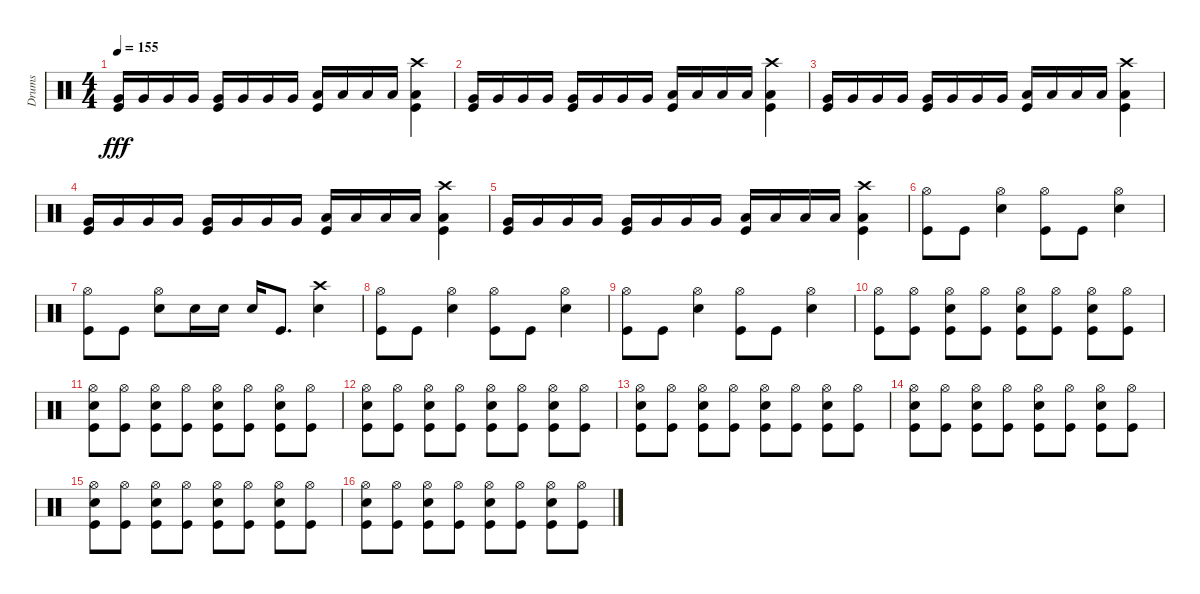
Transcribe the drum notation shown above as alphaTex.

\track ("Drums" "Drums") {instrument percussion}
\staff {score}
\articulation defaults
\ts (4 4)
\tempo 155
\clef neutral
\ks c
("Very Low Tom (hit)" "Kick (hit)").16{dy fff} "Very Low Tom (hit)".16 "Very Low Tom (hit)".16 "Very Low Tom (hit)".16 ("Very Low Tom (hit)" "Kick (hit)").16 "Very Low Tom (hit)".16 "Very Low Tom (hit)".16 "Very Low Tom (hit)".16 ("Low Floor Tom (hit)" "Kick (hit)").16 "Low Floor Tom (hit)".16 "Low Floor Tom (hit)".16 "Low Floor Tom (hit)".16 ("Crash high (hit)" "Low Floor Tom (hit)" "Kick (hit)").4 |
("Very Low Tom (hit)" "Kick (hit)").16 "Very Low Tom (hit)".16 "Very Low Tom (hit)".16 "Very Low Tom (hit)".16 ("Very Low Tom (hit)" "Kick (hit)").16 "Very Low Tom (hit)".16 "Very Low Tom (hit)".16 "Very Low Tom (hit)".16 ("Low Floor Tom (hit)" "Kick (hit)").16 "Low Floor Tom (hit)".16 "Low Floor Tom (hit)".16 "Low Floor Tom (hit)".16 ("Crash high (hit)" "Low Floor Tom (hit)" "Kick (hit)").4 |
("Very Low Tom (hit)" "Kick (hit)").16 "Very Low Tom (hit)".16 "Very Low Tom (hit)".16 "Very Low Tom (hit)".16 ("Very Low Tom (hit)" "Kick (hit)").16 "Very Low Tom (hit)".16 "Very Low Tom (hit)".16 "Very Low Tom (hit)".16 ("Low Floor Tom (hit)" "Kick (hit)").16 "Low Floor Tom (hit)".16 "Low Floor Tom (hit)".16 "Low Floor Tom (hit)".16 ("Crash high (hit)" "Low Floor Tom (hit)" "Kick (hit)").4 |
("Very Low Tom (hit)" "Kick (hit)").16 "Very Low Tom (hit)".16 "Very Low Tom (hit)".16 "Very Low Tom (hit)".16 ("Very Low Tom (hit)" "Kick (hit)").16 "Very Low Tom (hit)".16 "Very Low Tom (hit)".16 "Very Low Tom (hit)".16 ("Low Floor Tom (hit)" "Kick (hit)").16 "Low Floor Tom (hit)".16 "Low Floor Tom (hit)".16 "Low Floor Tom (hit)".16 ("Crash high (hit)" "Low Floor Tom (hit)" "Kick (hit)").4 |
("Very Low Tom (hit)" "Kick (hit)").16 "Very Low Tom (hit)".16 "Very Low Tom (hit)".16 "Very Low Tom (hit)".16 ("Very Low Tom (hit)" "Kick (hit)").16 "Very Low Tom (hit)".16 "Very Low Tom (hit)".16 "Very Low Tom (hit)".16 ("Low Floor Tom (hit)" "Kick (hit)").16 "Low Floor Tom (hit)".16 "Low Floor Tom (hit)".16 "Low Floor Tom (hit)".16 ("Crash high (hit)" "Low Floor Tom (hit)" "Kick (hit)").4 |
("Hi-Hat (open)" "Kick (hit)").8 "Kick (hit)".8 ("Hi-Hat (open)" "Snare (hit) 2").4 ("Hi-Hat (open)" "Kick (hit)").8 "Kick (hit)".8 ("Hi-Hat (open)" "Snare (hit) 2").4 |
("Hi-Hat (open)" "Kick (hit)").8 "Kick (hit)".8 ("Hi-Hat (open)" "Snare (hit) 2").8 "Snare (hit) 2".16 "Snare (hit) 2".16 "Snare (hit) 2".16 "Kick (hit)".8{d} ("Crash high (hit)" "Snare (hit) 2").4 |
("Hi-Hat (open)" "Kick (hit)").8 "Kick (hit)".8 ("Hi-Hat (open)" "Snare (hit) 2").4 ("Hi-Hat (open)" "Kick (hit)").8 "Kick (hit)".8 ("Hi-Hat (open)" "Snare (hit) 2").4 |
("Hi-Hat (open)" "Kick (hit)").8 "Kick (hit)".8 ("Hi-Hat (open)" "Snare (hit) 2").4 ("Hi-Hat (open)" "Kick (hit)").8 "Kick (hit)".8 ("Hi-Hat (open)" "Snare (hit) 2").4 |
("Hi-Hat (open)" "Kick (hit)").8 ("Hi-Hat (open)" "Kick (hit)").8 ("Hi-Hat (open)" "Snare (hit) 2" "Kick (hit)").8 ("Hi-Hat (open)" "Kick (hit)").8 ("Hi-Hat (open)" "Snare (hit) 2" "Kick (hit)").8 ("Hi-Hat (open)" "Kick (hit)").8 ("Hi-Hat (open)" "Snare (hit) 2" "Kick (hit)").8 ("Hi-Hat (open)" "Kick (hit)").8 |
("Hi-Hat (open)" "Snare (hit) 2" "Kick (hit)").8 ("Hi-Hat (open)" "Kick (hit)").8 ("Hi-Hat (open)" "Snare (hit) 2" "Kick (hit)").8 ("Hi-Hat (open)" "Kick (hit)").8 ("Hi-Hat (open)" "Snare (hit) 2" "Kick (hit)").8 ("Hi-Hat (open)" "Kick (hit)").8 ("Hi-Hat (open)" "Snare (hit) 2" "Kick (hit)").8 ("Hi-Hat (open)" "Kick (hit)").8 |
("Hi-Hat (open)" "Snare (hit) 2" "Kick (hit)").8 ("Hi-Hat (open)" "Kick (hit)").8 ("Hi-Hat (open)" "Snare (hit) 2" "Kick (hit)").8 ("Hi-Hat (open)" "Kick (hit)").8 ("Hi-Hat (open)" "Snare (hit) 2" "Kick (hit)").8 ("Hi-Hat (open)" "Kick (hit)").8 ("Hi-Hat (open)" "Snare (hit) 2" "Kick (hit)").8 ("Hi-Hat (open)" "Kick (hit)").8 |
("Hi-Hat (open)" "Snare (hit) 2" "Kick (hit)").8 ("Hi-Hat (open)" "Kick (hit)").8 ("Hi-Hat (open)" "Snare (hit) 2" "Kick (hit)").8 ("Hi-Hat (open)" "Kick (hit)").8 ("Hi-Hat (open)" "Snare (hit) 2" "Kick (hit)").8 ("Hi-Hat (open)" "Kick (hit)").8 ("Hi-Hat (open)" "Snare (hit) 2" "Kick (hit)").8 ("Hi-Hat (open)" "Kick (hit)").8 |
("Hi-Hat (open)" "Snare (hit) 2" "Kick (hit)").8 ("Hi-Hat (open)" "Kick (hit)").8 ("Hi-Hat (open)" "Snare (hit) 2" "Kick (hit)").8 ("Hi-Hat (open)" "Kick (hit)").8 ("Hi-Hat (open)" "Snare (hit) 2" "Kick (hit)").8 ("Hi-Hat (open)" "Kick (hit)").8 ("Hi-Hat (open)" "Snare (hit) 2" "Kick (hit)").8 ("Hi-Hat (open)" "Kick (hit)").8 |
("Hi-Hat (open)" "Snare (hit) 2" "Kick (hit)").8 ("Hi-Hat (open)" "Kick (hit)").8 ("Hi-Hat (open)" "Snare (hit) 2" "Kick (hit)").8 ("Hi-Hat (open)" "Kick (hit)").8 ("Hi-Hat (open)" "Snare (hit) 2" "Kick (hit)").8 ("Hi-Hat (open)" "Kick (hit)").8 ("Hi-Hat (open)" "Snare (hit) 2" "Kick (hit)").8 ("Hi-Hat (open)" "Kick (hit)").8 |
("Hi-Hat (open)" "Snare (hit) 2" "Kick (hit)").8 ("Hi-Hat (open)" "Kick (hit)").8 ("Hi-Hat (open)" "Snare (hit) 2" "Kick (hit)").8 ("Hi-Hat (open)" "Kick (hit)").8 ("Hi-Hat (open)" "Snare (hit) 2" "Kick (hit)").8 ("Hi-Hat (open)" "Kick (hit)").8 ("Hi-Hat (open)" "Snare (hit) 2" "Kick (hit)").8 ("Hi-Hat (open)" "Kick (hit)").8
